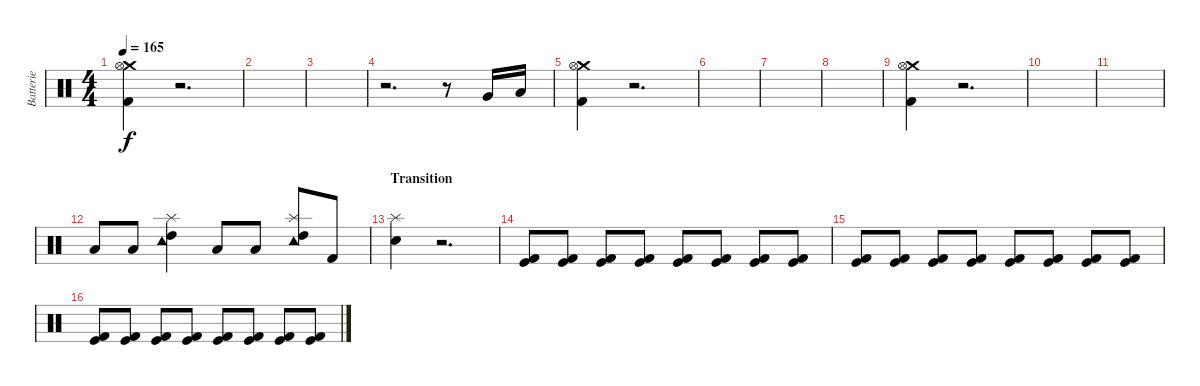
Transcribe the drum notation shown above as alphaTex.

\track ("Batterie" "Batterie") {instrument percussion}
\staff {score}
\articulation defaults
\ts (4 4)
\tempo 165
\clef neutral
\ks c
("Crash medium (hit)" "Hi-Hat (open)" "Kick (hit) 2").4{dy f} r.2{d} |
|
|
r.2{d} r.8 "Very Low Tom (hit)".16 "Low Floor Tom (hit)".16 |
("Crash medium (hit)" "Hi-Hat (open)" "Kick (hit) 2").4 r.2{d} |
|
|
|
("Crash medium (hit)" "Hi-Hat (open)" "Kick (hit) 2").4 r.2{d} |
|
|
"Low Tom (hit)".8 "Low Tom (hit)".8 ("Tambourine (hit)" "Splash (hit)" "High Tom (hit)").4 "Low Tom (hit)".8 "Low Tom (hit)".8 ("Tambourine (hit)" "Splash (hit)" "High Tom (hit)").8 "Kick (hit) 2".8 |
\section ("" "Transition")
("Splash (hit)" "Electric Snare (hit)").4 r.2{d volume 0} |
("Kick (hit) 2" "Kick (hit)").8{volume 5} ("Kick (hit) 2" "Kick (hit)").8 ("Kick (hit) 2" "Kick (hit)").8 ("Kick (hit) 2" "Kick (hit)").8 ("Kick (hit) 2" "Kick (hit)").8 ("Kick (hit) 2" "Kick (hit)").8 ("Kick (hit) 2" "Kick (hit)").8 ("Kick (hit) 2" "Kick (hit)").8 |
("Kick (hit) 2" "Kick (hit)").8 ("Kick (hit) 2" "Kick (hit)").8 ("Kick (hit) 2" "Kick (hit)").8 ("Kick (hit) 2" "Kick (hit)").8 ("Kick (hit) 2" "Kick (hit)").8 ("Kick (hit) 2" "Kick (hit)").8 ("Kick (hit) 2" "Kick (hit)").8 ("Kick (hit) 2" "Kick (hit)").8 |
("Kick (hit) 2" "Kick (hit)").8 ("Kick (hit) 2" "Kick (hit)").8 ("Kick (hit) 2" "Kick (hit)").8 ("Kick (hit) 2" "Kick (hit)").8 ("Kick (hit) 2" "Kick (hit)").8 ("Kick (hit) 2" "Kick (hit)").8 ("Kick (hit) 2" "Kick (hit)").8 ("Kick (hit) 2" "Kick (hit)").8
